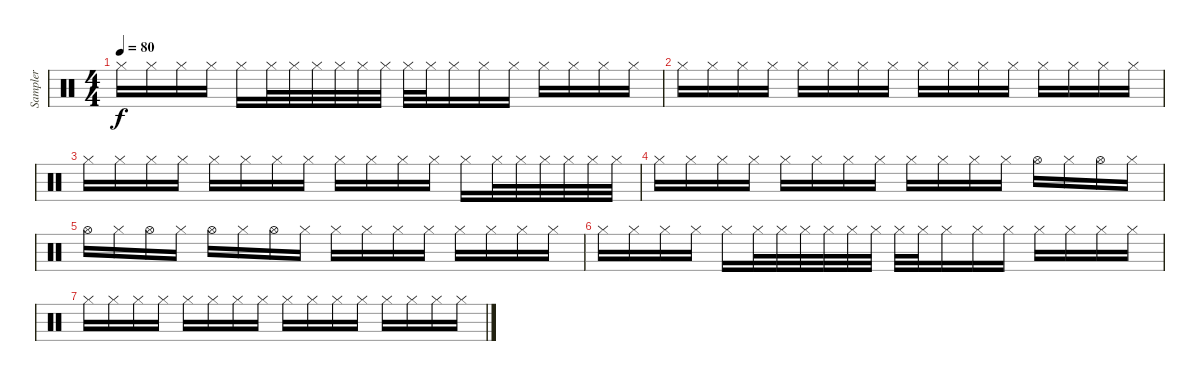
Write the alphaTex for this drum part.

\track ("Sampler" "Sampler") {instrument percussion}
\staff {score}
\articulation defaults
\ts (4 4)
\tempo 80
\clef neutral
\ks c "Hi-Hat (closed)".16{dy f} "Hi-Hat (closed)".16 "Hi-Hat (closed)".16 "Hi-Hat (closed)".16 "Hi-Hat (closed)".16 "Hi-Hat (closed)".32 "Hi-Hat (closed)".32 "Hi-Hat (closed)".32 "Hi-Hat (closed)".32 "Hi-Hat (closed)".32 "Hi-Hat (closed)".32 "Hi-Hat (closed)".32 "Hi-Hat (closed)".32 "Hi-Hat (closed)".16 "Hi-Hat (closed)".16 "Hi-Hat (closed)".16 "Hi-Hat (closed)".16 "Hi-Hat (closed)".16 "Hi-Hat (closed)".16 "Hi-Hat (closed)".16
|
"Hi-Hat (closed)".16 "Hi-Hat (closed)".16 "Hi-Hat (closed)".16 "Hi-Hat (closed)".16 "Hi-Hat (closed)".16 "Hi-Hat (closed)".16 "Hi-Hat (closed)".16 "Hi-Hat (closed)".16 "Hi-Hat (closed)".16 "Hi-Hat (closed)".16 "Hi-Hat (closed)".16 "Hi-Hat (closed)".16 "Hi-Hat (closed)".16 "Hi-Hat (closed)".16 "Hi-Hat (closed)".16 "Hi-Hat (closed)".16 |
"Hi-Hat (closed)".16 "Hi-Hat (closed)".16 "Hi-Hat (closed)".16 "Hi-Hat (closed)".16 "Hi-Hat (closed)".16 "Hi-Hat (closed)".16 "Hi-Hat (closed)".16 "Hi-Hat (closed)".16 "Hi-Hat (closed)".16 "Hi-Hat (closed)".16 "Hi-Hat (closed)".16 "Hi-Hat (closed)".16 "Hi-Hat (closed)".16 "Hi-Hat (closed)".32 "Hi-Hat (closed)".32 "Hi-Hat (closed)".32 "Hi-Hat (closed)".32 "Hi-Hat (closed)".32 "Hi-Hat (closed)".32 |
"Hi-Hat (closed)".16 "Hi-Hat (closed)".16 "Hi-Hat (closed)".16 "Hi-Hat (closed)".16 "Hi-Hat (closed)".16 "Hi-Hat (closed)".16 "Hi-Hat (closed)".16 "Hi-Hat (closed)".16 "Hi-Hat (closed)".16 "Hi-Hat (closed)".16 "Hi-Hat (closed)".16 "Hi-Hat (closed)".16 "Hi-Hat (open)".16 "Hi-Hat (closed)".16 "Hi-Hat (open)".16 "Hi-Hat (closed)".16 |
"Hi-Hat (open)".16 "Hi-Hat (closed)".16 "Hi-Hat (open)".16 "Hi-Hat (closed)".16 "Hi-Hat (open)".16 "Hi-Hat (closed)".16 "Hi-Hat (open)".16 "Hi-Hat (closed)".16 "Hi-Hat (closed)".16 "Hi-Hat (closed)".16 "Hi-Hat (closed)".16 "Hi-Hat (closed)".16 "Hi-Hat (closed)".16 "Hi-Hat (closed)".16 "Hi-Hat (closed)".16 "Hi-Hat (closed)".16 |
"Hi-Hat (closed)".16 "Hi-Hat (closed)".16 "Hi-Hat (closed)".16 "Hi-Hat (closed)".16 "Hi-Hat (closed)".16 "Hi-Hat (closed)".32 "Hi-Hat (closed)".32 "Hi-Hat (closed)".32 "Hi-Hat (closed)".32 "Hi-Hat (closed)".32 "Hi-Hat (closed)".32 "Hi-Hat (closed)".32 "Hi-Hat (closed)".32 "Hi-Hat (closed)".16 "Hi-Hat (closed)".16 "Hi-Hat (closed)".16 "Hi-Hat (closed)".16 "Hi-Hat (closed)".16 "Hi-Hat (closed)".16 "Hi-Hat (closed)".16 |
"Hi-Hat (closed)".16 "Hi-Hat (closed)".16 "Hi-Hat (closed)".16 "Hi-Hat (closed)".16 "Hi-Hat (closed)".16 "Hi-Hat (closed)".16 "Hi-Hat (closed)".16 "Hi-Hat (closed)".16 "Hi-Hat (closed)".16 "Hi-Hat (closed)".16 "Hi-Hat (closed)".16 "Hi-Hat (closed)".16 "Hi-Hat (closed)".16 "Hi-Hat (closed)".16 "Hi-Hat (closed)".16 "Hi-Hat (closed)".16
